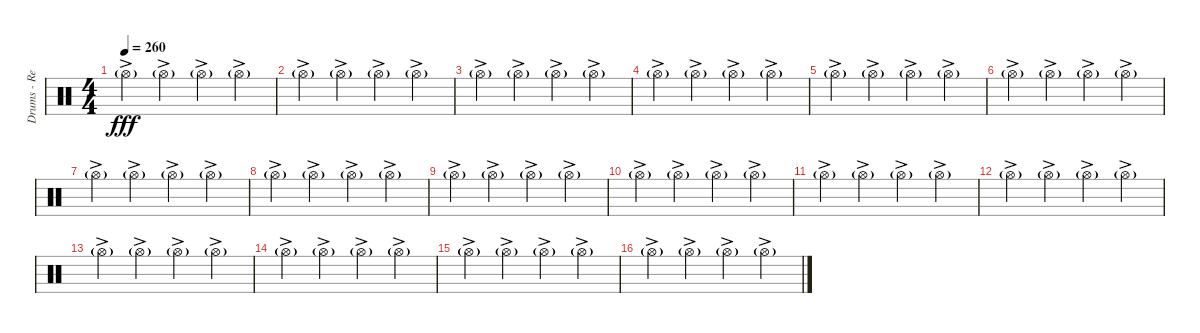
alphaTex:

\track ("Drums - Re'a Mochiach" "Drums - Re") {instrument percussion}
\staff {score}
\articulation defaults
\ts (4 4)
\tempo 260
\clef neutral
\ks c "Hi-Hat (open)"{g ac}.4{dy fff} "Hi-Hat (open)"{g ac}.4 "Hi-Hat (open)"{g ac}.4 "Hi-Hat (open)"{g ac}.4
|
"Hi-Hat (open)"{g ac}.4 "Hi-Hat (open)"{g ac}.4 "Hi-Hat (open)"{g ac}.4 "Hi-Hat (open)"{g ac}.4 |
"Hi-Hat (open)"{g ac}.4 "Hi-Hat (open)"{g ac}.4 "Hi-Hat (open)"{g ac}.4 "Hi-Hat (open)"{g ac}.4 |
"Hi-Hat (open)"{g ac}.4 "Hi-Hat (open)"{g ac}.4 "Hi-Hat (open)"{g ac}.4 "Hi-Hat (open)"{g ac}.4 |
"Hi-Hat (open)"{g ac}.4 "Hi-Hat (open)"{g ac}.4 "Hi-Hat (open)"{g ac}.4 "Hi-Hat (open)"{g ac}.4 |
"Hi-Hat (open)"{g ac}.4 "Hi-Hat (open)"{g ac}.4 "Hi-Hat (open)"{g ac}.4 "Hi-Hat (open)"{g ac}.4 |
"Hi-Hat (open)"{g ac}.4 "Hi-Hat (open)"{g ac}.4 "Hi-Hat (open)"{g ac}.4 "Hi-Hat (open)"{g ac}.4 |
"Hi-Hat (open)"{g ac}.4 "Hi-Hat (open)"{g ac}.4 "Hi-Hat (open)"{g ac}.4 "Hi-Hat (open)"{g ac}.4 |
"Hi-Hat (open)"{g ac}.4 "Hi-Hat (open)"{g ac}.4 "Hi-Hat (open)"{g ac}.4 "Hi-Hat (open)"{g ac}.4 |
"Hi-Hat (open)"{g ac}.4 "Hi-Hat (open)"{g ac}.4 "Hi-Hat (open)"{g ac}.4 "Hi-Hat (open)"{g ac}.4 |
"Hi-Hat (open)"{g ac}.4 "Hi-Hat (open)"{g ac}.4 "Hi-Hat (open)"{g ac}.4 "Hi-Hat (open)"{g ac}.4 |
"Hi-Hat (open)"{g ac}.4 "Hi-Hat (open)"{g ac}.4 "Hi-Hat (open)"{g ac}.4 "Hi-Hat (open)"{g ac}.4 |
"Hi-Hat (open)"{g ac}.4 "Hi-Hat (open)"{g ac}.4 "Hi-Hat (open)"{g ac}.4 "Hi-Hat (open)"{g ac}.4 |
"Hi-Hat (open)"{g ac}.4 "Hi-Hat (open)"{g ac}.4 "Hi-Hat (open)"{g ac}.4 "Hi-Hat (open)"{g ac}.4 |
"Hi-Hat (open)"{g ac}.4 "Hi-Hat (open)"{g ac}.4 "Hi-Hat (open)"{g ac}.4 "Hi-Hat (open)"{g ac}.4 |
"Hi-Hat (open)"{g ac}.4 "Hi-Hat (open)"{g ac}.4 "Hi-Hat (open)"{g ac}.4 "Hi-Hat (open)"{g ac}.4
